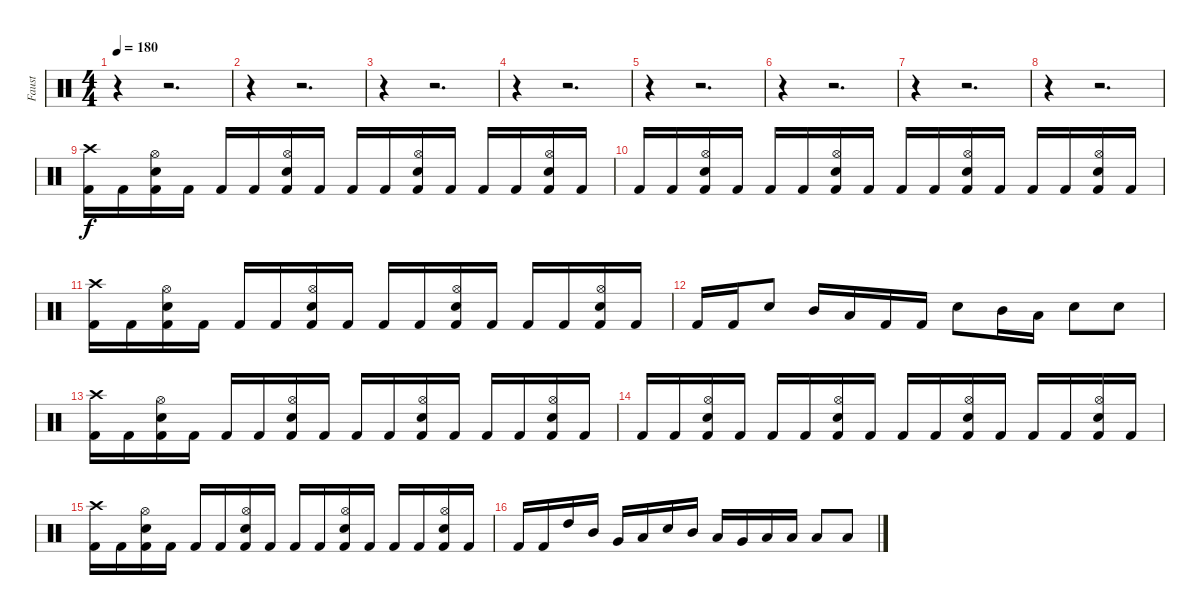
\track ("Faust" "Faust") {instrument percussion}
\staff {score}
\articulation defaults
\ts (4 4)
\tempo 180
\clef neutral
\ks c
r.4{dy f} r.2{d} |
r.4 r.2{d} |
r.4 r.2{d} |
r.4 r.2{d} |
r.4 r.2{d} |
r.4 r.2{d} |
r.4 r.2{d} |
r.4 r.2{d} |
("Crash high (hit)" "Kick (hit) 2").16 "Kick (hit) 2".16 ("Hi-Hat (open)" "Snare (hit) 2" "Kick (hit) 2").16 "Kick (hit) 2".16 "Kick (hit) 2".16 "Kick (hit) 2".16 ("Hi-Hat (open)" "Snare (hit) 2" "Kick (hit) 2").16 "Kick (hit) 2".16 "Kick (hit) 2".16 "Kick (hit) 2".16 ("Hi-Hat (open)" "Snare (hit) 2" "Kick (hit) 2").16 "Kick (hit) 2".16 "Kick (hit) 2".16 "Kick (hit) 2".16 ("Hi-Hat (open)" "Snare (hit) 2" "Kick (hit) 2").16 "Kick (hit) 2".16 |
"Kick (hit) 2".16 "Kick (hit) 2".16 ("Hi-Hat (open)" "Snare (hit) 2" "Kick (hit) 2").16 "Kick (hit) 2".16 "Kick (hit) 2".16 "Kick (hit) 2".16 ("Hi-Hat (open)" "Snare (hit) 2" "Kick (hit) 2").16 "Kick (hit) 2".16 "Kick (hit) 2".16 "Kick (hit) 2".16 ("Hi-Hat (open)" "Snare (hit) 2" "Kick (hit) 2").16 "Kick (hit) 2".16 "Kick (hit) 2".16 "Kick (hit) 2".16 ("Hi-Hat (open)" "Snare (hit) 2" "Kick (hit) 2").16 "Kick (hit) 2".16 |
("Crash high (hit)" "Kick (hit) 2").16 "Kick (hit) 2".16 ("Hi-Hat (open)" "Snare (hit) 2" "Kick (hit) 2").16 "Kick (hit) 2".16 "Kick (hit) 2".16 "Kick (hit) 2".16 ("Hi-Hat (open)" "Snare (hit) 2" "Kick (hit) 2").16 "Kick (hit) 2".16 "Kick (hit) 2".16 "Kick (hit) 2".16 ("Hi-Hat (open)" "Snare (hit) 2" "Kick (hit) 2").16 "Kick (hit) 2".16 "Kick (hit) 2".16 "Kick (hit) 2".16 ("Hi-Hat (open)" "Snare (hit) 2" "Kick (hit) 2").16 "Kick (hit) 2".16 |
"Kick (hit) 2".16 "Kick (hit) 2".16 "Snare (hit) 2".8 "Mid Tom (hit)".16 "Low Tom (hit)".16 "Kick (hit) 2".16 "Kick (hit) 2".16 "Snare (hit) 2".8 "Mid Tom (hit)".16 "Low Tom (hit)".16 "Snare (hit) 2".8 "Snare (hit) 2".8 |
("Crash high (hit)" "Kick (hit) 2").16 "Kick (hit) 2".16 ("Hi-Hat (open)" "Snare (hit) 2" "Kick (hit) 2").16 "Kick (hit) 2".16 "Kick (hit) 2".16 "Kick (hit) 2".16 ("Hi-Hat (open)" "Snare (hit) 2" "Kick (hit) 2").16 "Kick (hit) 2".16 "Kick (hit) 2".16 "Kick (hit) 2".16 ("Hi-Hat (open)" "Snare (hit) 2" "Kick (hit) 2").16 "Kick (hit) 2".16 "Kick (hit) 2".16 "Kick (hit) 2".16 ("Hi-Hat (open)" "Snare (hit) 2" "Kick (hit) 2").16 "Kick (hit) 2".16 |
"Kick (hit) 2".16 "Kick (hit) 2".16 ("Hi-Hat (open)" "Snare (hit) 2" "Kick (hit) 2").16 "Kick (hit) 2".16 "Kick (hit) 2".16 "Kick (hit) 2".16 ("Hi-Hat (open)" "Snare (hit) 2" "Kick (hit) 2").16 "Kick (hit) 2".16 "Kick (hit) 2".16 "Kick (hit) 2".16 ("Hi-Hat (open)" "Snare (hit) 2" "Kick (hit) 2").16 "Kick (hit) 2".16 "Kick (hit) 2".16 "Kick (hit) 2".16 ("Hi-Hat (open)" "Snare (hit) 2" "Kick (hit) 2").16 "Kick (hit) 2".16 |
("Crash high (hit)" "Kick (hit) 2").16 "Kick (hit) 2".16 ("Hi-Hat (open)" "Snare (hit) 2" "Kick (hit) 2").16 "Kick (hit) 2".16 "Kick (hit) 2".16 "Kick (hit) 2".16 ("Hi-Hat (open)" "Snare (hit) 2" "Kick (hit) 2").16 "Kick (hit) 2".16 "Kick (hit) 2".16 "Kick (hit) 2".16 ("Hi-Hat (open)" "Snare (hit) 2" "Kick (hit) 2").16 "Kick (hit) 2".16 "Kick (hit) 2".16 "Kick (hit) 2".16 ("Hi-Hat (open)" "Snare (hit) 2" "Kick (hit) 2").16 "Kick (hit) 2".16 |
"Kick (hit) 2".16 "Kick (hit) 2".16 "High Tom (hit)".16 "Mid Tom (hit)".16 "Very Low Tom (hit)".16 "Low Tom (hit)".16 "Snare (hit) 2".16 "Mid Tom (hit)".16 "Low Tom (hit)".16 "Very Low Tom (hit)".16 "Low Floor Tom (hit)".16 "Low Floor Tom (hit)".16 "Low Tom (hit)".8 "Low Tom (hit)".8
